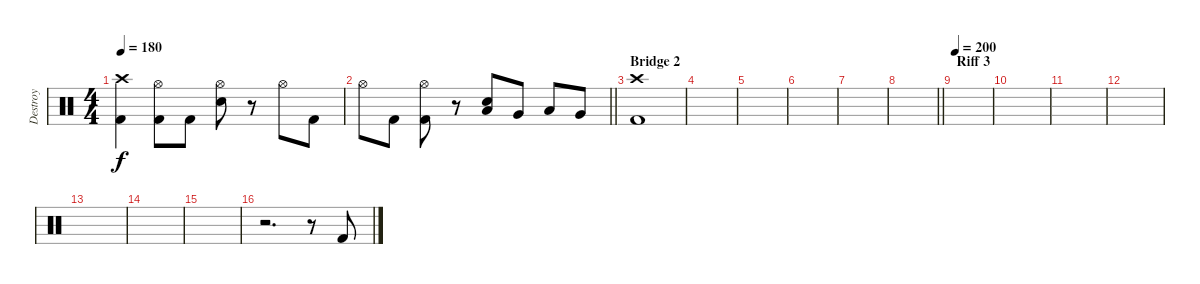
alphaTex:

\track ("Destroy" "Destroy") {instrument percussion}
\staff {score}
\articulation defaults
\ts (4 4)
\tempo 180
\clef neutral
\ks c
("Crash high (hit)" "Kick (hit) 2").4{dy f} ("Hi-Hat (open)" "Kick (hit) 2").8 "Kick (hit) 2".8 ("Hi-Hat (open)" "Snare (hit) 2").8 r.8 "Hi-Hat (open)".8 "Kick (hit) 2".8 |
\barLineRight lightlight "Hi-Hat (open)".8 "Kick (hit) 2".8
("Hi-Hat (open)" "Kick (hit) 2").8 r.8 ("Low Tom (hit)" "Snare (hit) 2").8 "Very Low Tom (hit)".8 "Low Floor Tom (hit)".8 "Very Low Tom (hit)".8 |
\section ("" "Bridge 2")
("Crash high (hit)" "Kick (hit) 2").1 |
|
|
|
|
\barLineRight lightlight
|
\section ("" "Riff 3")
\tempo 200
|
|
|
|
|
|
|
r.2{d} r.8 "Kick (hit) 2".8
